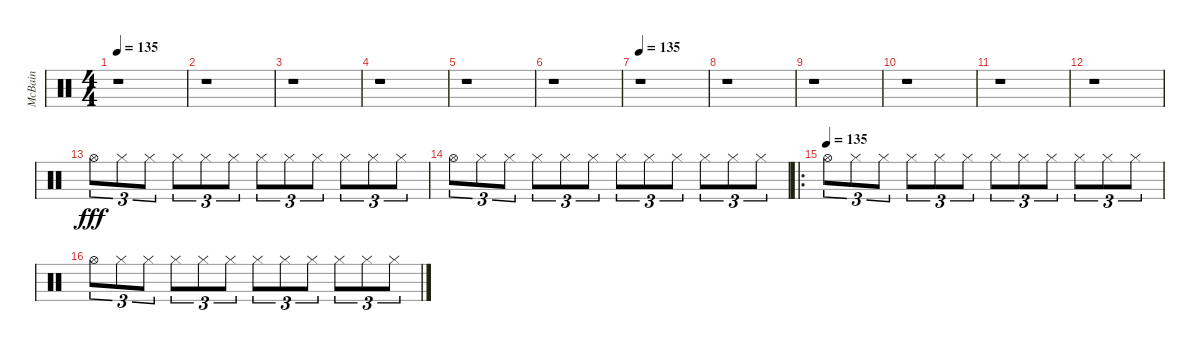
\track ("McBain" "McBain") {instrument percussion}
\staff {score}
\articulation defaults
\ts (4 4)
\tempo 135
\clef neutral
\ks c
r.1{dy fff} |
r.1 |
r.1 |
r.1 |
r.1 |
r.1 |
\tempo 135
r.1 |
r.1 |
r.1 |
r.1 |
r.1 |
r.1 |
"Hi-Hat (open)".8{tu (3 2)} "Hi-Hat (closed)".8{tu (3 2)} "Hi-Hat (closed)".8{tu (3 2)} "Hi-Hat (closed)".8{tu (3 2)} "Hi-Hat (closed)".8{tu (3 2)} "Hi-Hat (closed)".8{tu (3 2)} "Hi-Hat (closed)".8{tu (3 2)} "Hi-Hat (closed)".8{tu (3 2)} "Hi-Hat (closed)".8{tu (3 2)} "Hi-Hat (closed)".8{tu (3 2)} "Hi-Hat (closed)".8{tu (3 2)} "Hi-Hat (closed)".8{tu (3 2)} |
"Hi-Hat (open)".8{tu (3 2)} "Hi-Hat (closed)".8{tu (3 2)} "Hi-Hat (closed)".8{tu (3 2)} "Hi-Hat (closed)".8{tu (3 2)} "Hi-Hat (closed)".8{tu (3 2)} "Hi-Hat (closed)".8{tu (3 2)} "Hi-Hat (closed)".8{tu (3 2)} "Hi-Hat (closed)".8{tu (3 2)} "Hi-Hat (closed)".8{tu (3 2)} "Hi-Hat (closed)".8{tu (3 2)} "Hi-Hat (closed)".8{tu (3 2)} "Hi-Hat (closed)".8{tu (3 2)} |
\ro
\tempo (135)
"Hi-Hat (open)".8{tu (3 2)} "Hi-Hat (closed)".8{tu (3 2)} "Hi-Hat (closed)".8{tu (3 2)} "Hi-Hat (closed)".8{tu (3 2)} "Hi-Hat (closed)".8{tu (3 2)} "Hi-Hat (closed)".8{tu (3 2)} "Hi-Hat (closed)".8{tu (3 2)} "Hi-Hat (closed)".8{tu (3 2)} "Hi-Hat (closed)".8{tu (3 2)} "Hi-Hat (closed)".8{tu (3 2)} "Hi-Hat (closed)".8{tu (3 2)} "Hi-Hat (closed)".8{tu (3 2)} |
"Hi-Hat (open)".8{tu (3 2)} "Hi-Hat (closed)".8{tu (3 2)} "Hi-Hat (closed)".8{tu (3 2)} "Hi-Hat (closed)".8{tu (3 2)} "Hi-Hat (closed)".8{tu (3 2)} "Hi-Hat (closed)".8{tu (3 2)} "Hi-Hat (closed)".8{tu (3 2)} "Hi-Hat (closed)".8{tu (3 2)} "Hi-Hat (closed)".8{tu (3 2)} "Hi-Hat (closed)".8{tu (3 2)} "Hi-Hat (closed)".8{tu (3 2)} "Hi-Hat (closed)".8{tu (3 2)}
